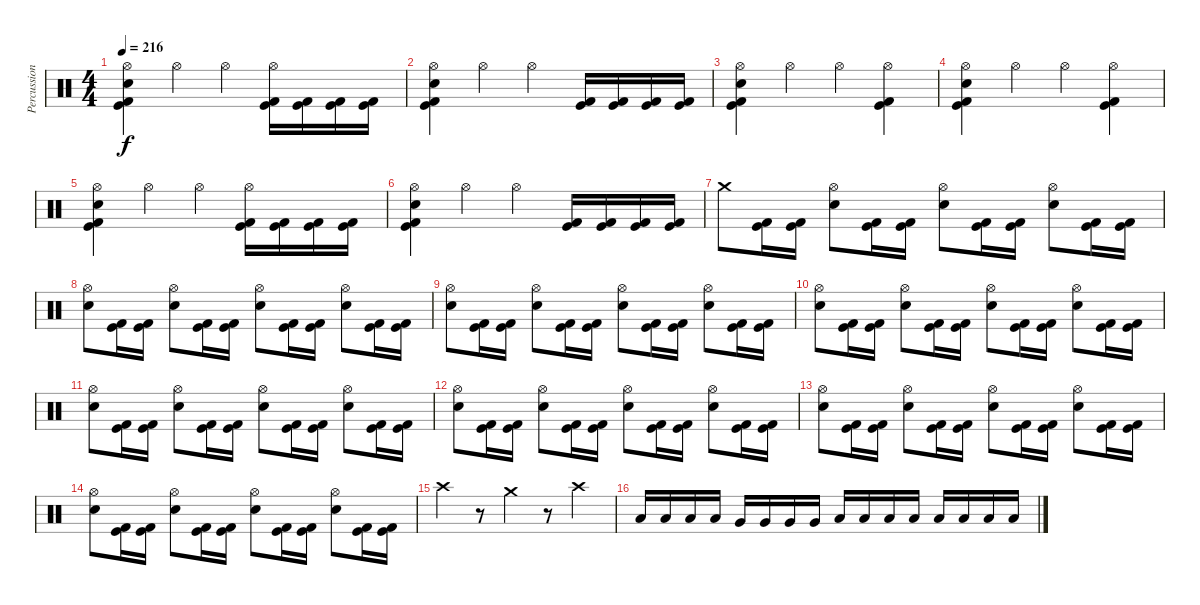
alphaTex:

\track ("Percussions" "Percussion") {instrument percussion}
\staff {score}
\articulation defaults
\ts (4 4)
\tempo 216
\clef neutral
\ks c
("Hi-Hat (open)" "Electric Snare (hit)" "Kick (hit)" "Kick (hit) 2").4{dy f} "Hi-Hat (open)".4 "Hi-Hat (open)".4 ("Hi-Hat (open)" "Kick (hit)" "Kick (hit) 2").16 ("Kick (hit)" "Kick (hit) 2").16 ("Kick (hit)" "Kick (hit) 2").16 ("Kick (hit)" "Kick (hit) 2").16 |
("Hi-Hat (open)" "Electric Snare (hit)" "Kick (hit)" "Kick (hit) 2").4 "Hi-Hat (open)".4 "Hi-Hat (open)".4 ("Kick (hit)" "Kick (hit) 2").16 ("Kick (hit)" "Kick (hit) 2").16 ("Kick (hit)" "Kick (hit) 2").16 ("Kick (hit)" "Kick (hit) 2").16 |
("Hi-Hat (open)" "Electric Snare (hit)" "Kick (hit)" "Kick (hit) 2").4 "Hi-Hat (open)".4 "Hi-Hat (open)".4 ("Hi-Hat (open)" "Kick (hit)" "Kick (hit) 2").4 |
("Hi-Hat (open)" "Electric Snare (hit)" "Kick (hit)" "Kick (hit) 2").4 "Hi-Hat (open)".4 "Hi-Hat (open)".4 ("Hi-Hat (open)" "Kick (hit)" "Kick (hit) 2").4 |
("Hi-Hat (open)" "Electric Snare (hit)" "Kick (hit)" "Kick (hit) 2").4 "Hi-Hat (open)".4 "Hi-Hat (open)".4 ("Hi-Hat (open)" "Kick (hit)" "Kick (hit) 2").16 ("Kick (hit)" "Kick (hit) 2").16 ("Kick (hit)" "Kick (hit) 2").16 ("Kick (hit)" "Kick (hit) 2").16 |
("Hi-Hat (open)" "Electric Snare (hit)" "Kick (hit)" "Kick (hit) 2").4 "Hi-Hat (open)".4 "Hi-Hat (open)".4 ("Kick (hit)" "Kick (hit) 2").16 ("Kick (hit)" "Kick (hit) 2").16 ("Kick (hit)" "Kick (hit) 2").16 ("Kick (hit)" "Kick (hit) 2").16 |
"Crash medium (hit)".8 ("Kick (hit)" "Kick (hit) 2").16 ("Kick (hit)" "Kick (hit) 2").16 ("Hi-Hat (open)" "Electric Snare (hit)").8 ("Kick (hit)" "Kick (hit) 2").16 ("Kick (hit)" "Kick (hit) 2").16 ("Hi-Hat (open)" "Electric Snare (hit)").8 ("Kick (hit)" "Kick (hit) 2").16 ("Kick (hit)" "Kick (hit) 2").16 ("Hi-Hat (open)" "Electric Snare (hit)").8 ("Kick (hit)" "Kick (hit) 2").16 ("Kick (hit)" "Kick (hit) 2").16 |
("Hi-Hat (open)" "Electric Snare (hit)").8 ("Kick (hit)" "Kick (hit) 2").16 ("Kick (hit)" "Kick (hit) 2").16 ("Hi-Hat (open)" "Electric Snare (hit)").8 ("Kick (hit)" "Kick (hit) 2").16 ("Kick (hit)" "Kick (hit) 2").16 ("Hi-Hat (open)" "Electric Snare (hit)").8 ("Kick (hit)" "Kick (hit) 2").16 ("Kick (hit)" "Kick (hit) 2").16 ("Hi-Hat (open)" "Electric Snare (hit)").8 ("Kick (hit)" "Kick (hit) 2").16 ("Kick (hit)" "Kick (hit) 2").16 |
("Hi-Hat (open)" "Electric Snare (hit)").8 ("Kick (hit)" "Kick (hit) 2").16 ("Kick (hit)" "Kick (hit) 2").16 ("Hi-Hat (open)" "Electric Snare (hit)").8 ("Kick (hit)" "Kick (hit) 2").16 ("Kick (hit)" "Kick (hit) 2").16 ("Hi-Hat (open)" "Electric Snare (hit)").8 ("Kick (hit)" "Kick (hit) 2").16 ("Kick (hit)" "Kick (hit) 2").16 ("Hi-Hat (open)" "Electric Snare (hit)").8 ("Kick (hit)" "Kick (hit) 2").16 ("Kick (hit)" "Kick (hit) 2").16 |
("Hi-Hat (open)" "Electric Snare (hit)").8 ("Kick (hit)" "Kick (hit) 2").16 ("Kick (hit)" "Kick (hit) 2").16 ("Hi-Hat (open)" "Electric Snare (hit)").8 ("Kick (hit)" "Kick (hit) 2").16 ("Kick (hit)" "Kick (hit) 2").16 ("Hi-Hat (open)" "Electric Snare (hit)").8 ("Kick (hit)" "Kick (hit) 2").16 ("Kick (hit)" "Kick (hit) 2").16 ("Hi-Hat (open)" "Electric Snare (hit)").8 ("Kick (hit)" "Kick (hit) 2").16 ("Kick (hit)" "Kick (hit) 2").16 |
("Hi-Hat (open)" "Electric Snare (hit)").8 ("Kick (hit)" "Kick (hit) 2").16 ("Kick (hit)" "Kick (hit) 2").16 ("Hi-Hat (open)" "Electric Snare (hit)").8 ("Kick (hit)" "Kick (hit) 2").16 ("Kick (hit)" "Kick (hit) 2").16 ("Hi-Hat (open)" "Electric Snare (hit)").8 ("Kick (hit)" "Kick (hit) 2").16 ("Kick (hit)" "Kick (hit) 2").16 ("Hi-Hat (open)" "Electric Snare (hit)").8 ("Kick (hit)" "Kick (hit) 2").16 ("Kick (hit)" "Kick (hit) 2").16 |
("Hi-Hat (open)" "Electric Snare (hit)").8 ("Kick (hit)" "Kick (hit) 2").16 ("Kick (hit)" "Kick (hit) 2").16 ("Hi-Hat (open)" "Electric Snare (hit)").8 ("Kick (hit)" "Kick (hit) 2").16 ("Kick (hit)" "Kick (hit) 2").16 ("Hi-Hat (open)" "Electric Snare (hit)").8 ("Kick (hit)" "Kick (hit) 2").16 ("Kick (hit)" "Kick (hit) 2").16 ("Hi-Hat (open)" "Electric Snare (hit)").8 ("Kick (hit)" "Kick (hit) 2").16 ("Kick (hit)" "Kick (hit) 2").16 |
("Hi-Hat (open)" "Electric Snare (hit)").8 ("Kick (hit)" "Kick (hit) 2").16 ("Kick (hit)" "Kick (hit) 2").16 ("Hi-Hat (open)" "Electric Snare (hit)").8 ("Kick (hit)" "Kick (hit) 2").16 ("Kick (hit)" "Kick (hit) 2").16 ("Hi-Hat (open)" "Electric Snare (hit)").8 ("Kick (hit)" "Kick (hit) 2").16 ("Kick (hit)" "Kick (hit) 2").16 ("Hi-Hat (open)" "Electric Snare (hit)").8 ("Kick (hit)" "Kick (hit) 2").16 ("Kick (hit)" "Kick (hit) 2").16 |
("Hi-Hat (open)" "Electric Snare (hit)").8 ("Kick (hit)" "Kick (hit) 2").16 ("Kick (hit)" "Kick (hit) 2").16 ("Hi-Hat (open)" "Electric Snare (hit)").8 ("Kick (hit)" "Kick (hit) 2").16 ("Kick (hit)" "Kick (hit) 2").16 ("Hi-Hat (open)" "Electric Snare (hit)").8 ("Kick (hit)" "Kick (hit) 2").16 ("Kick (hit)" "Kick (hit) 2").16 ("Hi-Hat (open)" "Electric Snare (hit)").8 ("Kick (hit)" "Kick (hit) 2").16 ("Kick (hit)" "Kick (hit) 2").16 |
"Crash high (hit)".4 r.8 "Crash medium (hit)".4 r.8 "Crash high (hit)".4 |
"Low Tom (hit)".16 "Low Tom (hit)".16 "Low Tom (hit)".16 "Low Tom (hit)".16 "Very Low Tom (hit)".16 "Very Low Tom (hit)".16 "Very Low Tom (hit)".16 "Very Low Tom (hit)".16 "Low Tom (hit)".16 "Low Tom (hit)".16 "Low Tom (hit)".16 "Low Tom (hit)".16 "Low Floor Tom (hit)".16 "Low Floor Tom (hit)".16 "Low Floor Tom (hit)".16 "Low Floor Tom (hit)".16
